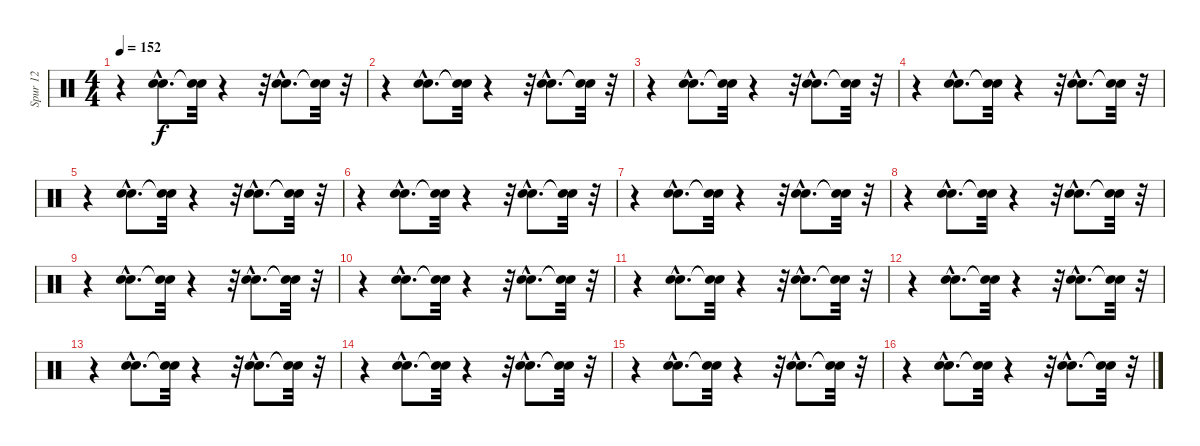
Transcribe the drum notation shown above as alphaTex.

\track ("Spur 12" "Spur 12") {instrument percussion}
\staff {score}
\articulation defaults
\ts (4 4)
\tempo 152
\clef neutral
\ks c
r.4{dy f} ("Hand Clap (hit)"{hac} "Electric Snare (hit)"{hac}).8{d} ("Snare (hit)"{t} "Snare (hit)"{t}).32 r.4 r.32 ("Hand Clap (hit)"{hac} "Electric Snare (hit)"{hac}).8{d} ("Snare (hit)"{t} "Snare (hit)"{t}).32 r.32 |
r.4 ("Hand Clap (hit)"{hac} "Electric Snare (hit)"{hac}).8{d} ("Snare (hit)"{t} "Snare (hit)"{t}).32 r.4 r.32 ("Hand Clap (hit)"{hac} "Electric Snare (hit)"{hac}).8{d} ("Snare (hit)"{t} "Snare (hit)"{t}).32 r.32 |
r.4 ("Hand Clap (hit)"{hac} "Electric Snare (hit)"{hac}).8{d} ("Snare (hit)"{t} "Snare (hit)"{t}).32 r.4 r.32 ("Hand Clap (hit)"{hac} "Electric Snare (hit)"{hac}).8{d} ("Snare (hit)"{t} "Snare (hit)"{t}).32 r.32 |
r.4 ("Hand Clap (hit)"{hac} "Electric Snare (hit)"{hac}).8{d} ("Snare (hit)"{t} "Snare (hit)"{t}).32 r.4 r.32 ("Hand Clap (hit)"{hac} "Electric Snare (hit)"{hac}).8{d} ("Snare (hit)"{t} "Snare (hit)"{t}).32 r.32 |
r.4 ("Hand Clap (hit)"{hac} "Electric Snare (hit)"{hac}).8{d} ("Snare (hit)"{t} "Snare (hit)"{t}).32 r.4 r.32 ("Hand Clap (hit)"{hac} "Electric Snare (hit)"{hac}).8{d} ("Snare (hit)"{t} "Snare (hit)"{t}).32 r.32 |
r.4 ("Hand Clap (hit)"{hac} "Electric Snare (hit)"{hac}).8{d} ("Snare (hit)"{t} "Snare (hit)"{t}).32 r.4 r.32 ("Hand Clap (hit)"{hac} "Electric Snare (hit)"{hac}).8{d} ("Snare (hit)"{t} "Snare (hit)"{t}).32 r.32 |
r.4 ("Hand Clap (hit)"{hac} "Electric Snare (hit)"{hac}).8{d} ("Snare (hit)"{t} "Snare (hit)"{t}).32 r.4 r.32 ("Hand Clap (hit)"{hac} "Electric Snare (hit)"{hac}).8{d} ("Snare (hit)"{t} "Snare (hit)"{t}).32 r.32 |
r.4 ("Hand Clap (hit)"{hac} "Electric Snare (hit)"{hac}).8{d} ("Snare (hit)"{t} "Snare (hit)"{t}).32 r.4 r.32 ("Hand Clap (hit)"{hac} "Electric Snare (hit)"{hac}).8{d} ("Snare (hit)"{t} "Snare (hit)"{t}).32 r.32 |
r.4 ("Hand Clap (hit)"{hac} "Electric Snare (hit)"{hac}).8{d} ("Snare (hit)"{t} "Snare (hit)"{t}).32 r.4 r.32 ("Hand Clap (hit)"{hac} "Electric Snare (hit)"{hac}).8{d} ("Snare (hit)"{t} "Snare (hit)"{t}).32 r.32 |
r.4 ("Hand Clap (hit)"{hac} "Electric Snare (hit)"{hac}).8{d} ("Snare (hit)"{t} "Snare (hit)"{t}).32 r.4 r.32 ("Hand Clap (hit)"{hac} "Electric Snare (hit)"{hac}).8{d} ("Snare (hit)"{t} "Snare (hit)"{t}).32 r.32 |
r.4 ("Hand Clap (hit)"{hac} "Electric Snare (hit)"{hac}).8{d} ("Snare (hit)"{t} "Snare (hit)"{t}).32 r.4 r.32 ("Hand Clap (hit)"{hac} "Electric Snare (hit)"{hac}).8{d} ("Snare (hit)"{t} "Snare (hit)"{t}).32 r.32 |
r.4 ("Hand Clap (hit)"{hac} "Electric Snare (hit)"{hac}).8{d} ("Snare (hit)"{t} "Snare (hit)"{t}).32 r.4 r.32 ("Hand Clap (hit)"{hac} "Electric Snare (hit)"{hac}).8{d} ("Snare (hit)"{t} "Snare (hit)"{t}).32 r.32 |
r.4 ("Hand Clap (hit)"{hac} "Electric Snare (hit)"{hac}).8{d} ("Snare (hit)"{t} "Snare (hit)"{t}).32 r.4 r.32 ("Hand Clap (hit)"{hac} "Electric Snare (hit)"{hac}).8{d} ("Snare (hit)"{t} "Snare (hit)"{t}).32 r.32 |
r.4 ("Hand Clap (hit)"{hac} "Electric Snare (hit)"{hac}).8{d} ("Snare (hit)"{t} "Snare (hit)"{t}).32 r.4 r.32 ("Hand Clap (hit)"{hac} "Electric Snare (hit)"{hac}).8{d} ("Snare (hit)"{t} "Snare (hit)"{t}).32 r.32 |
r.4 ("Hand Clap (hit)"{hac} "Electric Snare (hit)"{hac}).8{d} ("Snare (hit)"{t} "Snare (hit)"{t}).32 r.4 r.32 ("Hand Clap (hit)"{hac} "Electric Snare (hit)"{hac}).8{d} ("Snare (hit)"{t} "Snare (hit)"{t}).32 r.32 |
r.4 ("Hand Clap (hit)"{hac} "Electric Snare (hit)"{hac}).8{d} ("Snare (hit)"{t} "Snare (hit)"{t}).32 r.4 r.32 ("Hand Clap (hit)"{hac} "Electric Snare (hit)"{hac}).8{d} ("Snare (hit)"{t} "Snare (hit)"{t}).32 r.32
